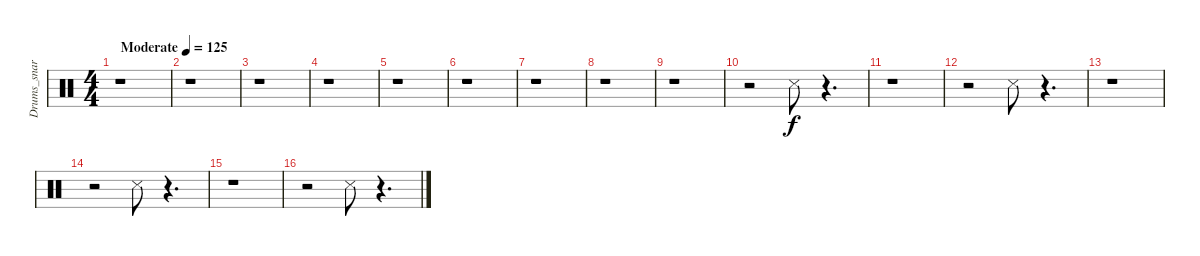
\track ("Drums_snare&tom" "Drums_snar") {instrument percussion}
\staff {score}
\articulation defaults
\ts (4 4)
\tempo (125 "Moderate")
\clef neutral
\ks c
r.1{dy f} |
r.1 |
r.1 |
r.1 |
r.1 |
r.1 |
r.1 |
r.1 |
r.1 |
r.2 "Snare (side stick) 3".8 r.4{d} |
r.1 |
r.2 "Snare (side stick) 3".8 r.4{d} |
r.1 |
r.2 "Snare (side stick) 3".8 r.4{d} |
r.1 |
r.2 "Snare (side stick) 3".8 r.4{d}
